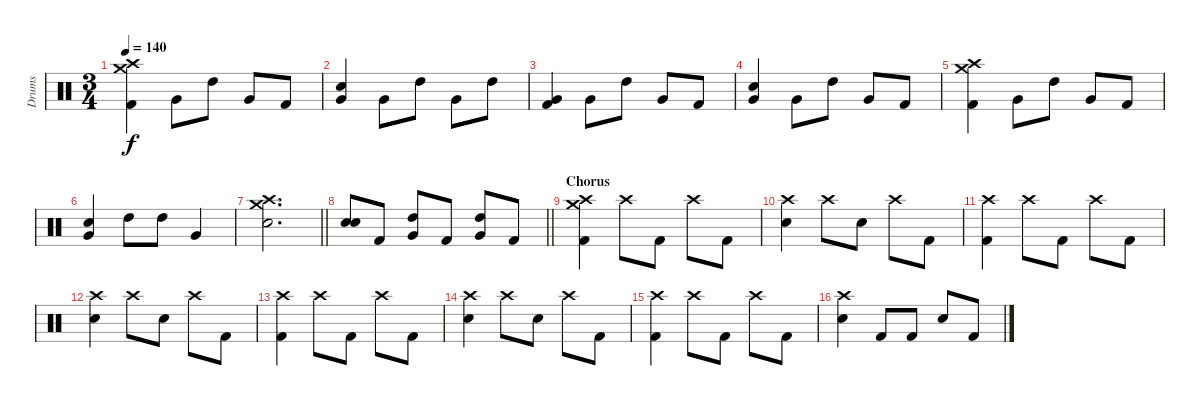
\track ("Drums" "Drums") {instrument percussion}
\staff {score}
\articulation defaults
\ts (3 4)
\tempo 140
\clef neutral
\ks c
("Kick (hit) 2" "Crash medium (hit)" "Crash high (hit)").4{dy f} "Very Low Tom (hit)".8 "High Tom (hit)".8 "Very Low Tom (hit)".8 "Kick (hit) 2".8 |
("Very Low Tom (hit)" "Electric Snare (hit)").4 "Very Low Tom (hit)".8 "High Tom (hit)".8 "Very Low Tom (hit)".8 "High Tom (hit)".8 |
("Kick (hit) 2" "Very Low Tom (hit)").4 "Very Low Tom (hit)".8 "High Tom (hit)".8 "Very Low Tom (hit)".8 "Kick (hit) 2".8 |
("Very Low Tom (hit)" "Electric Snare (hit)").4 "Very Low Tom (hit)".8 "High Tom (hit)".8 "Very Low Tom (hit)".8 "Kick (hit) 2".8 |
("Kick (hit) 2" "Crash high (hit)" "Crash medium (hit)").4 "Very Low Tom (hit)".8 "High Tom (hit)".8 "Very Low Tom (hit)".8 "Kick (hit) 2".8 |
("Very Low Tom (hit)" "Electric Snare (hit)").4 "High Tom (hit)".8 "High Tom (hit)".8 "Very Low Tom (hit)".4 |
\barLineRight lightlight
("Snare (hit)" "Crash high (hit)" "Crash medium (hit)").2{d} |
\barLineRight lightlight
("Electric Snare (hit)" "Electric Snare (hit)").8 "Kick (hit) 2".8 ("Very Low Tom (hit)" "High Tom (hit)").8 "Kick (hit) 2".8 ("Very Low Tom (hit)" "High Tom (hit)").8 "Kick (hit) 2".8 |
\section ("" "Chorus")
("Kick (hit) 2" "Crash high (hit)" "Crash medium (hit)").4 "Crash high (hit)".8 "Kick (hit) 2".8 "Crash high (hit)".8 "Kick (hit) 2".8 |
("Electric Snare (hit)" "Crash high (hit)").4 "Crash high (hit)".8 "Electric Snare (hit)".8 "Crash high (hit)".8 "Kick (hit) 2".8 |
("Kick (hit) 2" "Crash high (hit)").4 "Crash high (hit)".8 "Kick (hit) 2".8 "Crash high (hit)".8 "Kick (hit) 2".8 |
("Electric Snare (hit)" "Crash high (hit)").4 "Crash high (hit)".8 "Electric Snare (hit)".8 "Crash high (hit)".8 "Kick (hit) 2".8 |
("Kick (hit) 2" "Crash high (hit)").4 "Crash high (hit)".8 "Kick (hit) 2".8 "Crash high (hit)".8 "Kick (hit) 2".8 |
("Electric Snare (hit)" "Crash high (hit)").4 "Crash high (hit)".8 "Electric Snare (hit)".8 "Crash high (hit)".8 "Kick (hit) 2".8 |
("Kick (hit) 2" "Crash high (hit)").4 "Crash high (hit)".8 "Kick (hit) 2".8 "Crash high (hit)".8 "Kick (hit) 2".8 |
("Electric Snare (hit)" "Crash high (hit)").4 "Kick (hit) 2".8 "Kick (hit) 2".8 "Electric Snare (hit)".8 "Kick (hit) 2".8
